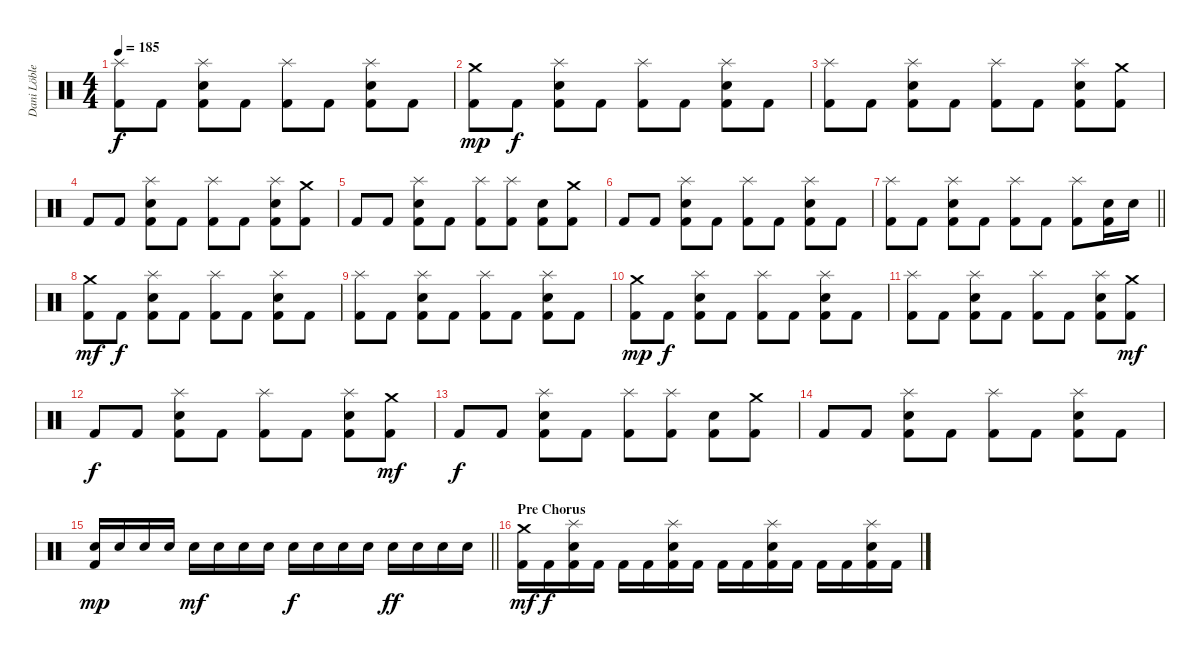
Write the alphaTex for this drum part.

\track ("Dani Löble" "Dani Löble") {instrument percussion}
\staff {score}
\articulation defaults
\ts (4 4)
\tempo 185
\clef neutral
\ks c
("Splash (hit)" "Kick (hit) 2").8{dy f} "Kick (hit) 2".8 ("Splash (hit)" "Electric Snare (hit)" "Kick (hit) 2").8 "Kick (hit) 2".8 ("Splash (hit)" "Kick (hit) 2").8 "Kick (hit) 2".8 ("Splash (hit)" "Electric Snare (hit)" "Kick (hit) 2").8 "Kick (hit) 2".8 |
("Crash medium (hit)" "Kick (hit) 2").8{dy mp} "Kick (hit) 2".8{dy f} ("Splash (hit)" "Electric Snare (hit)" "Kick (hit) 2").8 "Kick (hit) 2".8 ("Splash (hit)" "Kick (hit) 2").8 "Kick (hit) 2".8 ("Splash (hit)" "Electric Snare (hit)" "Kick (hit) 2").8 "Kick (hit) 2".8 |
("Splash (hit)" "Kick (hit) 2").8 "Kick (hit) 2".8 ("Splash (hit)" "Electric Snare (hit)" "Kick (hit) 2").8 "Kick (hit) 2".8 ("Splash (hit)" "Kick (hit) 2").8 "Kick (hit) 2".8 ("Splash (hit)" "Electric Snare (hit)" "Kick (hit) 2").8 ("Crash medium (hit)" "Kick (hit) 2").8 |
"Kick (hit) 2".8 "Kick (hit) 2".8 ("Splash (hit)" "Electric Snare (hit)" "Kick (hit) 2").8 "Kick (hit) 2".8 ("Splash (hit)" "Kick (hit) 2").8 "Kick (hit) 2".8 ("Splash (hit)" "Electric Snare (hit)" "Kick (hit) 2").8 ("Crash medium (hit)" "Kick (hit) 2").8 |
"Kick (hit) 2".8 "Kick (hit) 2".8 ("Splash (hit)" "Electric Snare (hit)" "Kick (hit) 2").8 "Kick (hit) 2".8 ("Splash (hit)" "Kick (hit) 2").8 ("Splash (hit)" "Kick (hit) 2").8 ("Electric Snare (hit)" "Kick (hit) 2").8 ("Crash medium (hit)" "Kick (hit) 2").8 |
"Kick (hit) 2".8 "Kick (hit) 2".8 ("Splash (hit)" "Electric Snare (hit)" "Kick (hit) 2").8 "Kick (hit) 2".8 ("Splash (hit)" "Kick (hit) 2").8 "Kick (hit) 2".8 ("Splash (hit)" "Electric Snare (hit)" "Kick (hit) 2").8 "Kick (hit) 2".8 |
\barLineRight lightlight
("Splash (hit)" "Kick (hit) 2").8 "Kick (hit) 2".8 ("Splash (hit)" "Electric Snare (hit)" "Kick (hit) 2").8 "Kick (hit) 2".8 ("Splash (hit)" "Kick (hit) 2").8 "Kick (hit) 2".8 ("Splash (hit)" "Kick (hit) 2").8 ("Electric Snare (hit)" "Kick (hit) 2").16 "Electric Snare (hit)".16 |
("Crash medium (hit)" "Kick (hit) 2").8{dy mf} "Kick (hit) 2".8{dy f} ("Splash (hit)" "Electric Snare (hit)" "Kick (hit) 2").8 "Kick (hit) 2".8 ("Splash (hit)" "Kick (hit) 2").8 "Kick (hit) 2".8 ("Splash (hit)" "Electric Snare (hit)" "Kick (hit) 2").8 "Kick (hit) 2".8 |
("Splash (hit)" "Kick (hit) 2").8 "Kick (hit) 2".8 ("Splash (hit)" "Electric Snare (hit)" "Kick (hit) 2").8 "Kick (hit) 2".8 ("Splash (hit)" "Kick (hit) 2").8 "Kick (hit) 2".8 ("Splash (hit)" "Electric Snare (hit)" "Kick (hit) 2").8 "Kick (hit) 2".8 |
("Crash medium (hit)" "Kick (hit) 2").8{dy mp} "Kick (hit) 2".8{dy f} ("Splash (hit)" "Electric Snare (hit)" "Kick (hit) 2").8 "Kick (hit) 2".8 ("Splash (hit)" "Kick (hit) 2").8 "Kick (hit) 2".8 ("Splash (hit)" "Electric Snare (hit)" "Kick (hit) 2").8 "Kick (hit) 2".8 |
("Splash (hit)" "Kick (hit) 2").8 "Kick (hit) 2".8 ("Splash (hit)" "Electric Snare (hit)" "Kick (hit) 2").8 "Kick (hit) 2".8 ("Splash (hit)" "Kick (hit) 2").8 "Kick (hit) 2".8 ("Splash (hit)" "Electric Snare (hit)" "Kick (hit) 2").8 ("Crash medium (hit)" "Kick (hit) 2").8{dy mf} |
"Kick (hit) 2".8{dy f} "Kick (hit) 2".8 ("Splash (hit)" "Electric Snare (hit)" "Kick (hit) 2").8 "Kick (hit) 2".8 ("Splash (hit)" "Kick (hit) 2").8 "Kick (hit) 2".8 ("Splash (hit)" "Electric Snare (hit)" "Kick (hit) 2").8 ("Crash medium (hit)" "Kick (hit) 2").8{dy mf} |
"Kick (hit) 2".8{dy f} "Kick (hit) 2".8 ("Splash (hit)" "Electric Snare (hit)" "Kick (hit) 2").8 "Kick (hit) 2".8 ("Splash (hit)" "Kick (hit) 2").8 ("Splash (hit)" "Kick (hit) 2").8 ("Electric Snare (hit)" "Kick (hit) 2").8 ("Crash medium (hit)" "Kick (hit) 2").8 |
"Kick (hit) 2".8 "Kick (hit) 2".8 ("Splash (hit)" "Electric Snare (hit)" "Kick (hit) 2").8 "Kick (hit) 2".8 ("Splash (hit)" "Kick (hit) 2").8 "Kick (hit) 2".8 ("Splash (hit)" "Electric Snare (hit)" "Kick (hit) 2").8 "Kick (hit) 2".8 |
\barLineRight lightlight
("Electric Snare (hit)" "Kick (hit) 2").16{dy mp} "Electric Snare (hit)".16 "Electric Snare (hit)".16 "Electric Snare (hit)".16 "Electric Snare (hit)".16{dy mf} "Electric Snare (hit)".16 "Electric Snare (hit)".16 "Electric Snare (hit)".16 "Electric Snare (hit)".16{dy f} "Electric Snare (hit)".16 "Electric Snare (hit)".16 "Electric Snare (hit)".16 "Electric Snare (hit)".16{dy ff} "Electric Snare (hit)".16 "Electric Snare (hit)".16 "Electric Snare (hit)".16 |
\section ("" "Pre Chorus")
("Crash medium (hit)" "Kick (hit) 2").16{dy mf} "Kick (hit) 2".16{dy f} ("Splash (hit)" "Electric Snare (hit)" "Kick (hit) 2").16 "Kick (hit) 2".16 "Kick (hit) 2".16 "Kick (hit) 2".16 ("Splash (hit)" "Electric Snare (hit)" "Kick (hit) 2").16 "Kick (hit) 2".16 "Kick (hit) 2".16 "Kick (hit) 2".16 ("Splash (hit)" "Electric Snare (hit)" "Kick (hit) 2").16 "Kick (hit) 2".16 "Kick (hit) 2".16 "Kick (hit) 2".16 ("Splash (hit)" "Electric Snare (hit)" "Kick (hit) 2").16 "Kick (hit) 2".16
